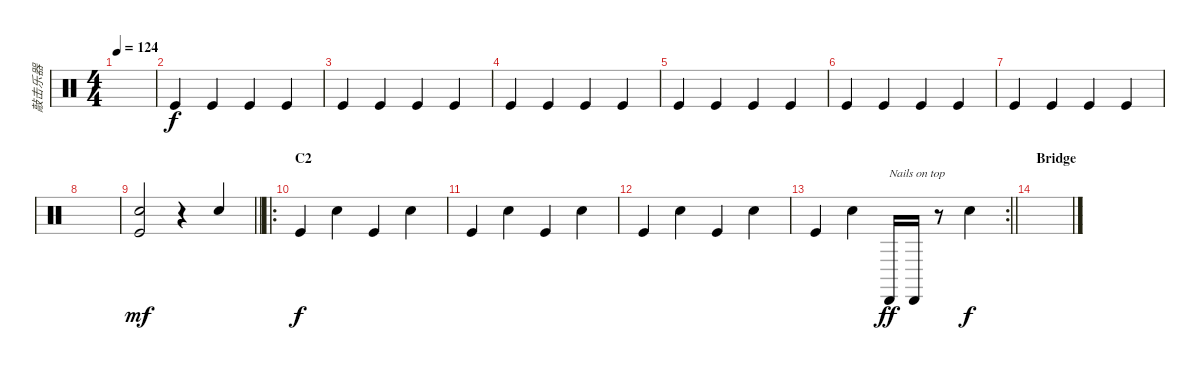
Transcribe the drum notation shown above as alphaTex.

\track ("敲击乐器" "敲击乐器") {instrument percussion}
\staff {score}
\articulation defaults
\ts (4 4)
\tempo 124
\clef neutral
\ks c
|
"Kick (hit)".4 "Kick (hit)".4 "Kick (hit)".4 "Kick (hit)".4 |
"Kick (hit)".4 "Kick (hit)".4 "Kick (hit)".4 "Kick (hit)".4 |
"Kick (hit)".4 "Kick (hit)".4 "Kick (hit)".4 "Kick (hit)".4 |
"Kick (hit)".4 "Kick (hit)".4 "Kick (hit)".4 "Kick (hit)".4 |
"Kick (hit)".4 "Kick (hit)".4 "Kick (hit)".4 "Kick (hit)".4 |
"Kick (hit)".4 "Kick (hit)".4 "Kick (hit)".4 "Kick (hit)".4 |
|
\barLineRight lightlight
("Snare (hit) 2" "Kick (hit)").2{dy mf} r.4 "Snare (hit) 2".4{beam Up} |
\ro
\section ("" "C2")
"Kick (hit)".4{dy f} "Snare (hit) 2".4 "Kick (hit)".4 "Snare (hit) 2".4 |
"Kick (hit)".4 "Snare (hit) 2".4 "Kick (hit)".4 "Snare (hit) 2".4 |
"Kick (hit)".4 "Snare (hit) 2".4 "Kick (hit)".4 "Snare (hit) 2".4 |
\rc 2
\barLineRight lightlight "Kick (hit)".4 "Snare (hit) 2".4 "Cabasa (hit)".16{txt "Nails on top" dy ff} "Cabasa (hit)".16
r.8 "Snare (hit) 2".4{dy f} |
\section ("" "Bridge")
